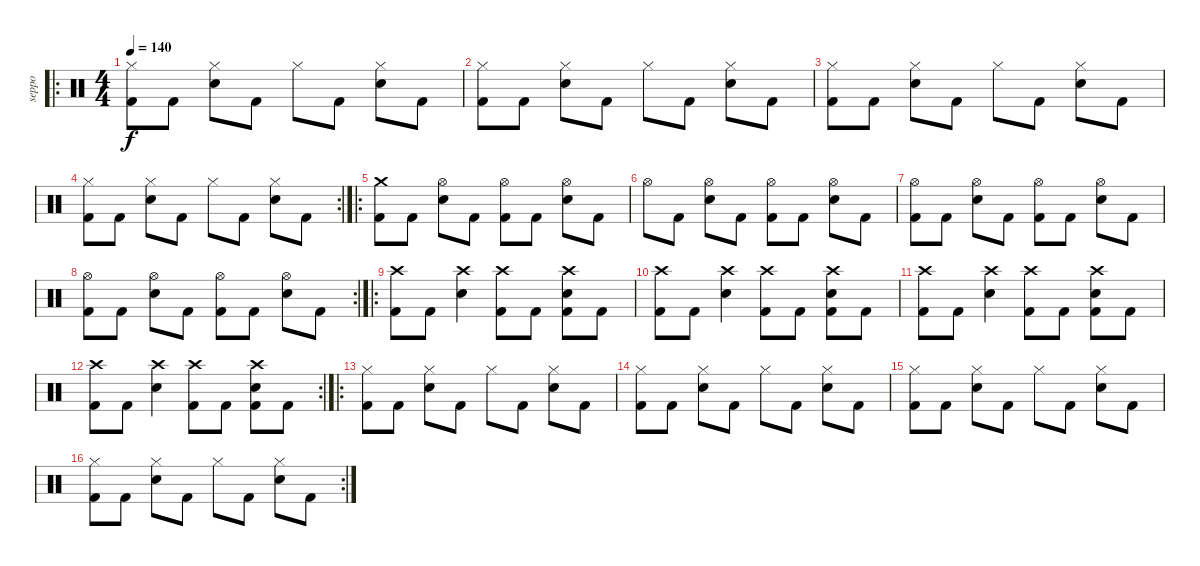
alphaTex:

\track ("seppo" "seppo") {instrument percussion}
\staff {score}
\articulation defaults
\ro
\ts (4 4)
\tempo 140
\clef neutral
\ks c
("Kick (hit) 2" "Hi-Hat (closed)").8{dy f} "Kick (hit) 2".8 ("Hi-Hat (closed)" "Snare (hit) 2").8 "Kick (hit) 2".8 "Hi-Hat (closed)".8 "Kick (hit) 2".8 ("Hi-Hat (closed)" "Snare (hit) 2").8 "Kick (hit) 2".8 |
("Kick (hit) 2" "Hi-Hat (closed)").8 "Kick (hit) 2".8 ("Hi-Hat (closed)" "Snare (hit) 2").8 "Kick (hit) 2".8 "Hi-Hat (closed)".8 "Kick (hit) 2".8 ("Hi-Hat (closed)" "Snare (hit) 2").8 "Kick (hit) 2".8 |
("Kick (hit) 2" "Hi-Hat (closed)").8 "Kick (hit) 2".8 ("Hi-Hat (closed)" "Snare (hit) 2").8 "Kick (hit) 2".8 "Hi-Hat (closed)".8 "Kick (hit) 2".8 ("Hi-Hat (closed)" "Snare (hit) 2").8 "Kick (hit) 2".8 |
\rc 2
("Kick (hit) 2" "Hi-Hat (closed)").8 "Kick (hit) 2".8 ("Hi-Hat (closed)" "Snare (hit) 2").8 "Kick (hit) 2".8 "Hi-Hat (closed)".8 "Kick (hit) 2".8 ("Hi-Hat (closed)" "Snare (hit) 2").8 "Kick (hit) 2".8 |
\ro
("Kick (hit) 2" "Crash medium (hit)").8 "Kick (hit) 2".8 ("Hi-Hat (open)" "Snare (hit) 2").8 "Kick (hit) 2".8 ("Kick (hit) 2" "Hi-Hat (open)").8 "Kick (hit) 2".8 ("Hi-Hat (open)" "Snare (hit) 2").8 "Kick (hit) 2".8 |
"Hi-Hat (open)".8 "Kick (hit) 2".8 ("Hi-Hat (open)" "Snare (hit) 2").8 "Kick (hit) 2".8 ("Kick (hit) 2" "Hi-Hat (open)").8 "Kick (hit) 2".8 ("Hi-Hat (open)" "Snare (hit) 2").8 "Kick (hit) 2".8 |
("Kick (hit) 2" "Hi-Hat (open)").8 "Kick (hit) 2".8 ("Hi-Hat (open)" "Snare (hit) 2").8 "Kick (hit) 2".8 ("Kick (hit) 2" "Hi-Hat (open)").8 "Kick (hit) 2".8 ("Hi-Hat (open)" "Snare (hit) 2").8 "Kick (hit) 2".8 |
\rc 2
("Kick (hit) 2" "Hi-Hat (open)").8 "Kick (hit) 2".8 ("Hi-Hat (open)" "Snare (hit) 2").8 "Kick (hit) 2".8 ("Kick (hit) 2" "Hi-Hat (open)").8 "Kick (hit) 2".8 ("Hi-Hat (open)" "Snare (hit) 2").8 "Kick (hit) 2".8 |
\ro
("Kick (hit) 2" "Crash high (hit)").8 "Kick (hit) 2".8 ("Crash high (hit)" "Snare (hit) 2").4 ("Kick (hit) 2" "Crash high (hit)").8 "Kick (hit) 2".8 ("Kick (hit) 2" "Crash high (hit)" "Snare (hit) 2").8 "Kick (hit) 2".8 |
("Kick (hit) 2" "Crash high (hit)").8 "Kick (hit) 2".8 ("Crash high (hit)" "Snare (hit) 2").4 ("Kick (hit) 2" "Crash high (hit)").8 "Kick (hit) 2".8 ("Kick (hit) 2" "Crash high (hit)" "Snare (hit) 2").8 "Kick (hit) 2".8 |
("Kick (hit) 2" "Crash high (hit)").8 "Kick (hit) 2".8 ("Crash high (hit)" "Snare (hit) 2").4 ("Kick (hit) 2" "Crash high (hit)").8 "Kick (hit) 2".8 ("Kick (hit) 2" "Crash high (hit)" "Snare (hit) 2").8 "Kick (hit) 2".8 |
\rc 2
("Kick (hit) 2" "Crash high (hit)").8 "Kick (hit) 2".8 ("Crash high (hit)" "Snare (hit) 2").4 ("Kick (hit) 2" "Crash high (hit)").8 "Kick (hit) 2".8 ("Kick (hit) 2" "Crash high (hit)" "Snare (hit) 2").8 "Kick (hit) 2".8 |
\ro
("Kick (hit) 2" "Hi-Hat (closed)").8 "Kick (hit) 2".8 ("Hi-Hat (closed)" "Snare (hit) 2").8 "Kick (hit) 2".8 "Hi-Hat (closed)".8 "Kick (hit) 2".8 ("Hi-Hat (closed)" "Snare (hit) 2").8 "Kick (hit) 2".8 |
("Kick (hit) 2" "Hi-Hat (closed)").8 "Kick (hit) 2".8 ("Hi-Hat (closed)" "Snare (hit) 2").8 "Kick (hit) 2".8 "Hi-Hat (closed)".8 "Kick (hit) 2".8 ("Hi-Hat (closed)" "Snare (hit) 2").8 "Kick (hit) 2".8 |
("Kick (hit) 2" "Hi-Hat (closed)").8 "Kick (hit) 2".8 ("Hi-Hat (closed)" "Snare (hit) 2").8 "Kick (hit) 2".8 "Hi-Hat (closed)".8 "Kick (hit) 2".8 ("Hi-Hat (closed)" "Snare (hit) 2").8 "Kick (hit) 2".8 |
\rc 2
("Kick (hit) 2" "Hi-Hat (closed)").8 "Kick (hit) 2".8 ("Hi-Hat (closed)" "Snare (hit) 2").8 "Kick (hit) 2".8 "Hi-Hat (closed)".8 "Kick (hit) 2".8 ("Hi-Hat (closed)" "Snare (hit) 2").8 "Kick (hit) 2".8
